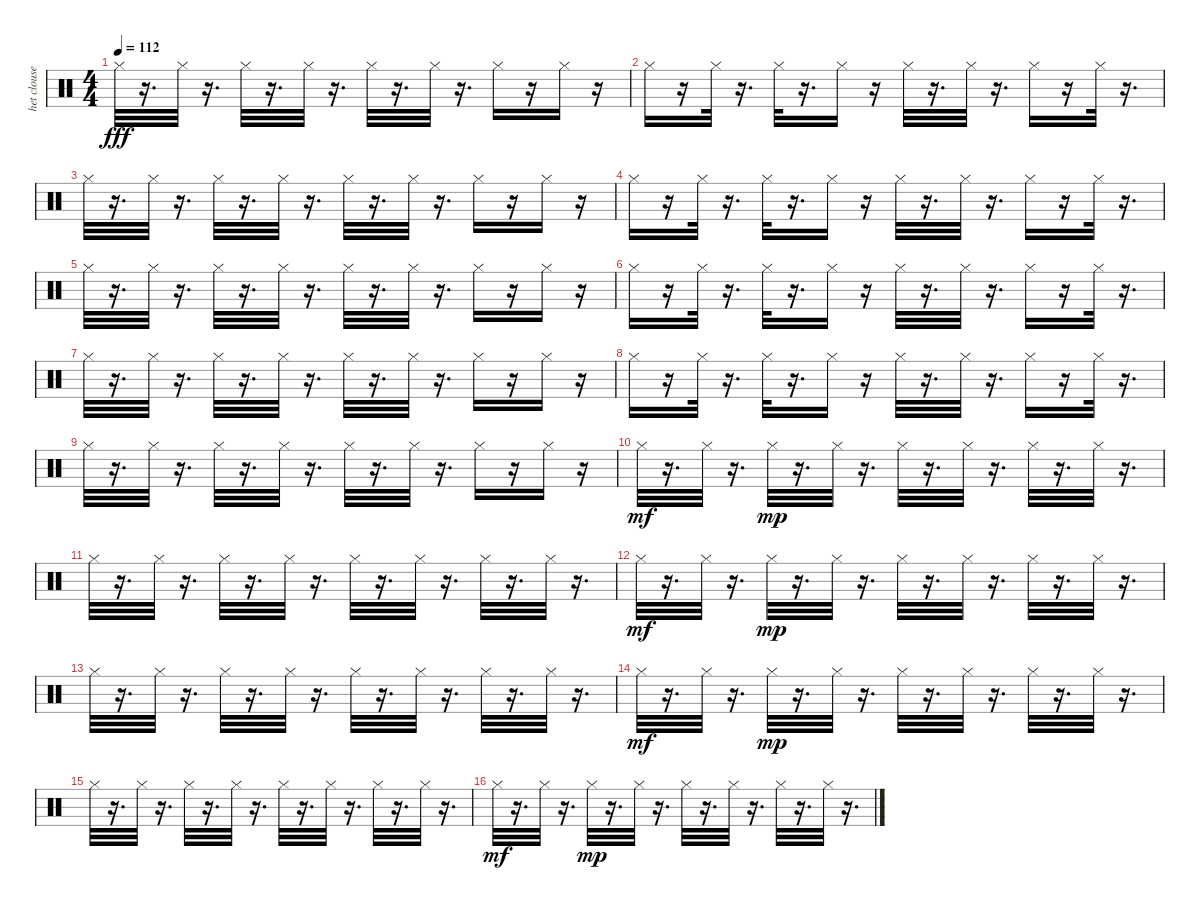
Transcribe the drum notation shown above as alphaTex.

\track ("het cloused" "het clouse") {instrument percussion}
\staff {score}
\articulation defaults
\ts (4 4)
\tempo 112
\clef neutral
\ks c "Hi-Hat (closed)".32{dy fff}
r.16{d} "Hi-Hat (closed)".32 r.16{d} "Hi-Hat (closed)".32 r.16{d} "Hi-Hat (closed)".32 r.16{d} "Hi-Hat (closed)".32 r.16{d} "Hi-Hat (closed)".32 r.16{d} "Hi-Hat (closed)".16 r.16 "Hi-Hat (closed)".16 r.16 |
"Hi-Hat (closed)".16 r.16 "Hi-Hat (closed)".32 r.16{d} "Hi-Hat (closed)".32 r.16{d} "Hi-Hat (closed)".16 r.16 "Hi-Hat (closed)".32 r.16{d} "Hi-Hat (closed)".32 r.16{d} "Hi-Hat (closed)".16 r.16 "Hi-Hat (closed)".32 r.16{d} |
"Hi-Hat (closed)".32 r.16{d} "Hi-Hat (closed)".32 r.16{d} "Hi-Hat (closed)".32 r.16{d} "Hi-Hat (closed)".32 r.16{d} "Hi-Hat (closed)".32 r.16{d} "Hi-Hat (closed)".32 r.16{d} "Hi-Hat (closed)".16 r.16 "Hi-Hat (closed)".16 r.16 |
"Hi-Hat (closed)".16 r.16 "Hi-Hat (closed)".32 r.16{d} "Hi-Hat (closed)".32 r.16{d} "Hi-Hat (closed)".16 r.16 "Hi-Hat (closed)".32 r.16{d} "Hi-Hat (closed)".32 r.16{d} "Hi-Hat (closed)".16 r.16 "Hi-Hat (closed)".32 r.16{d} |
"Hi-Hat (closed)".32 r.16{d} "Hi-Hat (closed)".32 r.16{d} "Hi-Hat (closed)".32 r.16{d} "Hi-Hat (closed)".32 r.16{d} "Hi-Hat (closed)".32 r.16{d} "Hi-Hat (closed)".32 r.16{d} "Hi-Hat (closed)".16 r.16 "Hi-Hat (closed)".16 r.16 |
"Hi-Hat (closed)".16 r.16 "Hi-Hat (closed)".32 r.16{d} "Hi-Hat (closed)".32 r.16{d} "Hi-Hat (closed)".16 r.16 "Hi-Hat (closed)".32 r.16{d} "Hi-Hat (closed)".32 r.16{d} "Hi-Hat (closed)".16 r.16 "Hi-Hat (closed)".32 r.16{d} |
"Hi-Hat (closed)".32 r.16{d} "Hi-Hat (closed)".32 r.16{d} "Hi-Hat (closed)".32 r.16{d} "Hi-Hat (closed)".32 r.16{d} "Hi-Hat (closed)".32 r.16{d} "Hi-Hat (closed)".32 r.16{d} "Hi-Hat (closed)".16 r.16 "Hi-Hat (closed)".16 r.16 |
"Hi-Hat (closed)".16 r.16 "Hi-Hat (closed)".32 r.16{d} "Hi-Hat (closed)".32 r.16{d} "Hi-Hat (closed)".16 r.16 "Hi-Hat (closed)".32 r.16{d} "Hi-Hat (closed)".32 r.16{d} "Hi-Hat (closed)".16 r.16 "Hi-Hat (closed)".32 r.16{d} |
"Hi-Hat (closed)".32 r.16{d} "Hi-Hat (closed)".32 r.16{d} "Hi-Hat (closed)".32 r.16{d} "Hi-Hat (closed)".32 r.16{d} "Hi-Hat (closed)".32 r.16{d} "Hi-Hat (closed)".32 r.16{d} "Hi-Hat (closed)".16 r.16 "Hi-Hat (closed)".16 r.16 |
"Hi-Hat (closed)".32{dy mf} r.16{d} "Hi-Hat (closed)".32 r.16{d} "Hi-Hat (closed)".32{dy mp} r.16{d} "Hi-Hat (closed)".32 r.16{d} "Hi-Hat (closed)".32 r.16{d} "Hi-Hat (closed)".32 r.16{d} "Hi-Hat (closed)".32 r.16{d} "Hi-Hat (closed)".32 r.16{d} |
"Hi-Hat (closed)".32 r.16{d} "Hi-Hat (closed)".32 r.16{d} "Hi-Hat (closed)".32 r.16{d} "Hi-Hat (closed)".32 r.16{d} "Hi-Hat (closed)".32 r.16{d} "Hi-Hat (closed)".32 r.16{d} "Hi-Hat (closed)".32 r.16{d} "Hi-Hat (closed)".32 r.16{d} |
"Hi-Hat (closed)".32{dy mf} r.16{d} "Hi-Hat (closed)".32 r.16{d} "Hi-Hat (closed)".32{dy mp} r.16{d} "Hi-Hat (closed)".32 r.16{d} "Hi-Hat (closed)".32 r.16{d} "Hi-Hat (closed)".32 r.16{d} "Hi-Hat (closed)".32 r.16{d} "Hi-Hat (closed)".32 r.16{d} |
"Hi-Hat (closed)".32 r.16{d} "Hi-Hat (closed)".32 r.16{d} "Hi-Hat (closed)".32 r.16{d} "Hi-Hat (closed)".32 r.16{d} "Hi-Hat (closed)".32 r.16{d} "Hi-Hat (closed)".32 r.16{d} "Hi-Hat (closed)".32 r.16{d} "Hi-Hat (closed)".32 r.16{d} |
"Hi-Hat (closed)".32{dy mf} r.16{d} "Hi-Hat (closed)".32 r.16{d} "Hi-Hat (closed)".32{dy mp} r.16{d} "Hi-Hat (closed)".32 r.16{d} "Hi-Hat (closed)".32 r.16{d} "Hi-Hat (closed)".32 r.16{d} "Hi-Hat (closed)".32 r.16{d} "Hi-Hat (closed)".32 r.16{d} |
"Hi-Hat (closed)".32 r.16{d} "Hi-Hat (closed)".32 r.16{d} "Hi-Hat (closed)".32 r.16{d} "Hi-Hat (closed)".32 r.16{d} "Hi-Hat (closed)".32 r.16{d} "Hi-Hat (closed)".32 r.16{d} "Hi-Hat (closed)".32 r.16{d} "Hi-Hat (closed)".32 r.16{d} |
"Hi-Hat (closed)".32{dy mf} r.16{d} "Hi-Hat (closed)".32 r.16{d} "Hi-Hat (closed)".32{dy mp} r.16{d} "Hi-Hat (closed)".32 r.16{d} "Hi-Hat (closed)".32 r.16{d} "Hi-Hat (closed)".32 r.16{d} "Hi-Hat (closed)".32 r.16{d} "Hi-Hat (closed)".32 r.16{d}
